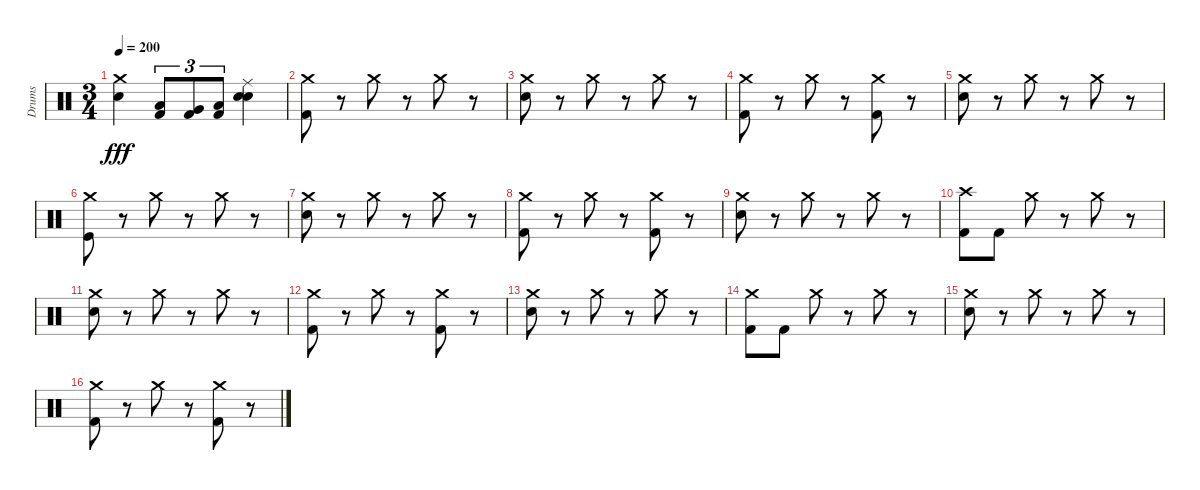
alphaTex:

\track ("Drums" "Drums") {instrument percussion}
\staff {score}
\articulation defaults
\ts (3 4)
\tempo 200
\clef neutral
\ks c
("Crash medium (hit)" "Snare (hit) 2").4{dy fff} ("Low Tom (hit)" "Kick (hit) 2").8{tu (3 2)} ("Very Low Tom (hit)" "Kick (hit) 2").8{tu (3 2)} ("Low Floor Tom (hit)" "Kick (hit) 2").8{tu (3 2)} ("Ride (middle)" "Electric Snare (hit)" "Snare (hit) 2").4 |
("Crash medium (hit)" "Kick (hit) 2").8 r.8 "Crash medium (hit)".8 r.8 "Crash medium (hit)".8 r.8 |
("Crash medium (hit)" "Snare (hit) 2").8 r.8 "Crash medium (hit)".8 r.8 "Crash medium (hit)".8 r.8 |
("Crash medium (hit)" "Kick (hit) 2").8 r.8 "Crash medium (hit)".8 r.8 ("Crash medium (hit)" "Kick (hit) 2").8 r.8 |
("Crash medium (hit)" "Snare (hit) 2").8 r.8 "Crash medium (hit)".8 r.8 "Crash medium (hit)".8 r.8 |
("Crash medium (hit)" "Kick (hit)").8 r.8 "Crash medium (hit)".8 r.8 "Crash medium (hit)".8 r.8 |
("Crash medium (hit)" "Snare (hit) 2").8 r.8 "Crash medium (hit)".8 r.8 "Crash medium (hit)".8 r.8 |
("Crash medium (hit)" "Kick (hit) 2").8 r.8 "Crash medium (hit)".8 r.8 ("Crash medium (hit)" "Kick (hit) 2").8 r.8 |
("Crash medium (hit)" "Snare (hit) 2").8 r.8 "Crash medium (hit)".8 r.8 "Crash medium (hit)".8 r.8 |
("Crash high (hit)" "Kick (hit) 2").8 "Kick (hit) 2".8 "Crash medium (hit)".8 r.8 "Crash medium (hit)".8 r.8 |
("Crash medium (hit)" "Snare (hit) 2").8 r.8 "Crash medium (hit)".8 r.8 "Crash medium (hit)".8 r.8 |
("Crash medium (hit)" "Kick (hit) 2").8 r.8 "Crash medium (hit)".8 r.8 ("Crash medium (hit)" "Kick (hit) 2").8 r.8 |
("Crash medium (hit)" "Snare (hit) 2").8 r.8 "Crash medium (hit)".8 r.8 "Crash medium (hit)".8 r.8 |
("Crash medium (hit)" "Kick (hit) 2").8 "Kick (hit) 2".8 "Crash medium (hit)".8 r.8 "Crash medium (hit)".8 r.8 |
("Crash medium (hit)" "Snare (hit) 2").8 r.8 "Crash medium (hit)".8 r.8 "Crash medium (hit)".8 r.8 |
("Crash medium (hit)" "Kick (hit) 2").8 r.8 "Crash medium (hit)".8 r.8 ("Crash medium (hit)" "Kick (hit) 2").8 r.8
